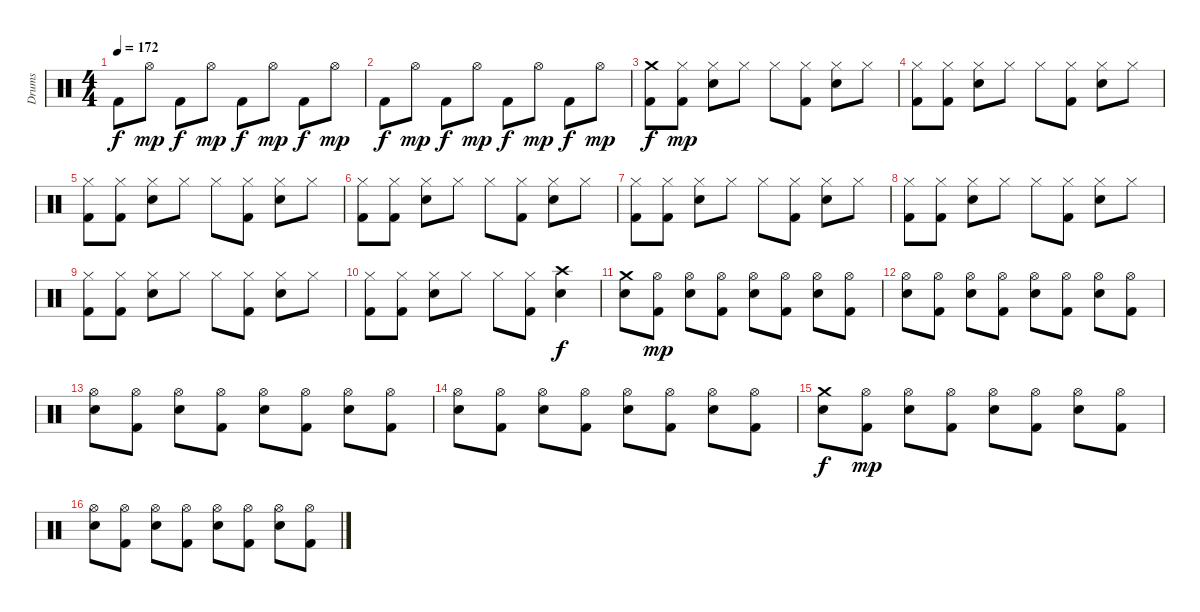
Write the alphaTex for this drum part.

\track ("Drums" "Drums") {instrument percussion}
\staff {score}
\articulation defaults
\ts (4 4)
\tempo 172
\clef neutral
\ks c "Kick (hit) 2".8{dy f} "Hi-Hat (open)".8{dy mp} "Kick (hit) 2".8{dy f} "Hi-Hat (open)".8{dy mp} "Kick (hit) 2".8{dy f} "Hi-Hat (open)".8{dy mp} "Kick (hit) 2".8{dy f} "Hi-Hat (open)".8{dy mp}
|
"Kick (hit) 2".8{dy f} "Hi-Hat (open)".8{dy mp} "Kick (hit) 2".8{dy f} "Hi-Hat (open)".8{dy mp} "Kick (hit) 2".8{dy f} "Hi-Hat (open)".8{dy mp} "Kick (hit) 2".8{dy f} "Hi-Hat (open)".8{dy mp} |
("Crash medium (hit)" "Kick (hit) 2").8{dy f} ("Hi-Hat (closed)" "Kick (hit) 2").8{dy mp} ("Hi-Hat (closed)" "Snare (hit) 2").8 "Hi-Hat (closed)".8 "Hi-Hat (closed)".8 ("Hi-Hat (closed)" "Kick (hit) 2").8 ("Hi-Hat (closed)" "Snare (hit) 2").8 "Hi-Hat (closed)".8 |
("Hi-Hat (closed)" "Kick (hit) 2").8 ("Hi-Hat (closed)" "Kick (hit) 2").8 ("Hi-Hat (closed)" "Snare (hit) 2").8 "Hi-Hat (closed)".8 "Hi-Hat (closed)".8 ("Hi-Hat (closed)" "Kick (hit) 2").8 ("Hi-Hat (closed)" "Snare (hit) 2").8 "Hi-Hat (closed)".8 |
("Hi-Hat (closed)" "Kick (hit) 2").8 ("Hi-Hat (closed)" "Kick (hit) 2").8 ("Hi-Hat (closed)" "Snare (hit) 2").8 "Hi-Hat (closed)".8 "Hi-Hat (closed)".8 ("Hi-Hat (closed)" "Kick (hit) 2").8 ("Hi-Hat (closed)" "Snare (hit) 2").8 "Hi-Hat (closed)".8 |
("Hi-Hat (closed)" "Kick (hit) 2").8 ("Hi-Hat (closed)" "Kick (hit) 2").8 ("Hi-Hat (closed)" "Snare (hit) 2").8 "Hi-Hat (closed)".8 "Hi-Hat (closed)".8 ("Hi-Hat (closed)" "Kick (hit) 2").8 ("Hi-Hat (closed)" "Snare (hit) 2").8 "Hi-Hat (closed)".8 |
("Hi-Hat (closed)" "Kick (hit) 2").8 ("Hi-Hat (closed)" "Kick (hit) 2").8 ("Hi-Hat (closed)" "Snare (hit) 2").8 "Hi-Hat (closed)".8 "Hi-Hat (closed)".8 ("Hi-Hat (closed)" "Kick (hit) 2").8 ("Hi-Hat (closed)" "Snare (hit) 2").8 "Hi-Hat (closed)".8 |
("Hi-Hat (closed)" "Kick (hit) 2").8 ("Hi-Hat (closed)" "Kick (hit) 2").8 ("Hi-Hat (closed)" "Snare (hit) 2").8 "Hi-Hat (closed)".8 "Hi-Hat (closed)".8 ("Hi-Hat (closed)" "Kick (hit) 2").8 ("Hi-Hat (closed)" "Snare (hit) 2").8 "Hi-Hat (closed)".8 |
("Hi-Hat (closed)" "Kick (hit) 2").8 ("Hi-Hat (closed)" "Kick (hit) 2").8 ("Hi-Hat (closed)" "Snare (hit) 2").8 "Hi-Hat (closed)".8 "Hi-Hat (closed)".8 ("Hi-Hat (closed)" "Kick (hit) 2").8 ("Hi-Hat (closed)" "Snare (hit) 2").8 "Hi-Hat (closed)".8 |
("Hi-Hat (closed)" "Kick (hit) 2").8 ("Hi-Hat (closed)" "Kick (hit) 2").8 ("Hi-Hat (closed)" "Snare (hit) 2").8 "Hi-Hat (closed)".8 "Hi-Hat (closed)".8 ("Hi-Hat (closed)" "Kick (hit) 2").8 ("Crash high (hit)" "Snare (hit) 2").4{dy f} |
("Crash medium (hit)" "Snare (hit) 2").8 ("Hi-Hat (open)" "Kick (hit) 2").8{dy mp} ("Hi-Hat (open)" "Snare (hit) 2").8 ("Hi-Hat (open)" "Kick (hit) 2").8 ("Hi-Hat (open)" "Snare (hit) 2").8 ("Hi-Hat (open)" "Kick (hit) 2").8 ("Hi-Hat (open)" "Snare (hit) 2").8 ("Hi-Hat (open)" "Kick (hit) 2").8 |
("Hi-Hat (open)" "Snare (hit) 2").8 ("Hi-Hat (open)" "Kick (hit) 2").8 ("Hi-Hat (open)" "Snare (hit) 2").8 ("Hi-Hat (open)" "Kick (hit) 2").8 ("Hi-Hat (open)" "Snare (hit) 2").8 ("Hi-Hat (open)" "Kick (hit) 2").8 ("Hi-Hat (open)" "Snare (hit) 2").8 ("Hi-Hat (open)" "Kick (hit) 2").8 |
("Hi-Hat (open)" "Snare (hit) 2").8 ("Hi-Hat (open)" "Kick (hit) 2").8 ("Hi-Hat (open)" "Snare (hit) 2").8 ("Hi-Hat (open)" "Kick (hit) 2").8 ("Hi-Hat (open)" "Snare (hit) 2").8 ("Hi-Hat (open)" "Kick (hit) 2").8 ("Hi-Hat (open)" "Snare (hit) 2").8 ("Hi-Hat (open)" "Kick (hit) 2").8 |
("Hi-Hat (open)" "Snare (hit) 2").8 ("Hi-Hat (open)" "Kick (hit) 2").8 ("Hi-Hat (open)" "Snare (hit) 2").8 ("Hi-Hat (open)" "Kick (hit) 2").8 ("Hi-Hat (open)" "Snare (hit) 2").8 ("Hi-Hat (open)" "Kick (hit) 2").8 ("Hi-Hat (open)" "Snare (hit) 2").8 ("Hi-Hat (open)" "Kick (hit) 2").8 |
("Crash medium (hit)" "Snare (hit) 2").8{dy f} ("Hi-Hat (open)" "Kick (hit) 2").8{dy mp} ("Hi-Hat (open)" "Snare (hit) 2").8 ("Hi-Hat (open)" "Kick (hit) 2").8 ("Hi-Hat (open)" "Snare (hit) 2").8 ("Hi-Hat (open)" "Kick (hit) 2").8 ("Hi-Hat (open)" "Snare (hit) 2").8 ("Hi-Hat (open)" "Kick (hit) 2").8 |
("Hi-Hat (open)" "Snare (hit) 2").8 ("Hi-Hat (open)" "Kick (hit) 2").8 ("Hi-Hat (open)" "Snare (hit) 2").8 ("Hi-Hat (open)" "Kick (hit) 2").8 ("Hi-Hat (open)" "Snare (hit) 2").8 ("Hi-Hat (open)" "Kick (hit) 2").8 ("Hi-Hat (open)" "Snare (hit) 2").8 ("Hi-Hat (open)" "Kick (hit) 2").8
